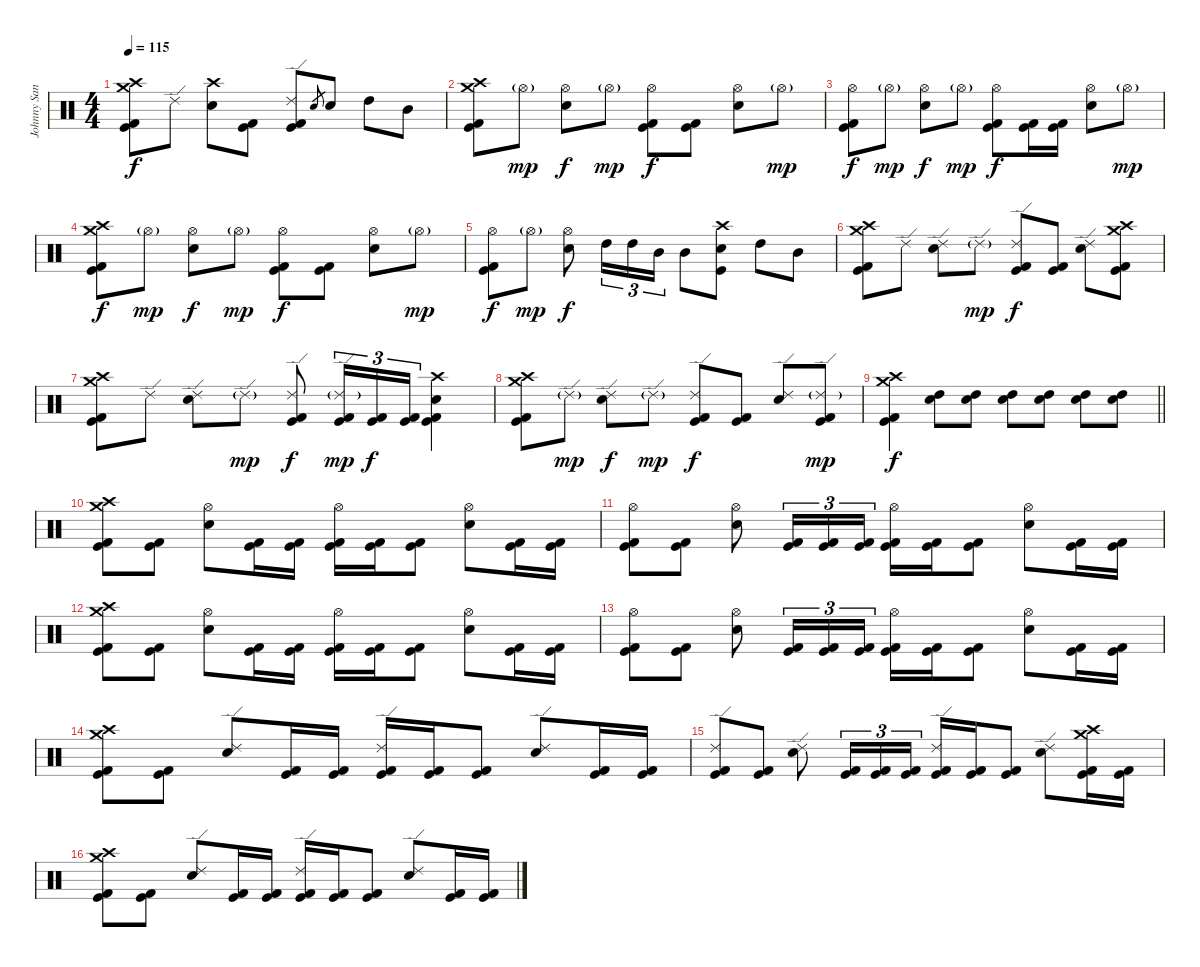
\track ("Johnny Sandin" "Johnny San") {instrument percussion}
\staff {score}
\articulation defaults
\ts (4 4)
\tempo 115
\clef neutral
\ks c
("Crash medium (hit)" "Crash high (hit)" "Kick (hit) 2" "Kick (hit)").8{dy f} "Ride (edge) 2".8 ("Crash high (hit)" "Snare (hit) 2").8 ("Kick (hit) 2" "Kick (hit)").8 ("Ride (edge) 2" "Kick (hit) 2" "Kick (hit)").8 "Snare (hit) 2".8{gr} "Snare (hit) 2".8 "High Tom (hit)".8 "Mid Tom (hit)".8 |
("Crash medium (hit)" "Crash high (hit)" "Kick (hit) 2" "Kick (hit)").8 "Hi-Hat (open)"{g}.8{dy mp} ("Hi-Hat (open)" "Snare (hit) 2").8{dy f} "Hi-Hat (open)"{g}.8{dy mp} ("Hi-Hat (open)" "Kick (hit) 2" "Kick (hit)").8{dy f} ("Kick (hit) 2" "Kick (hit)").8 ("Hi-Hat (open)" "Snare (hit) 2").8 "Hi-Hat (open)"{g}.8{dy mp} |
("Hi-Hat (open)" "Kick (hit) 2" "Kick (hit)").8{dy f} "Hi-Hat (open)"{g}.8{dy mp} ("Hi-Hat (open)" "Snare (hit) 2").8{dy f} "Hi-Hat (open)"{g}.8{dy mp} ("Hi-Hat (open)" "Kick (hit) 2" "Kick (hit)").8{dy f} ("Kick (hit) 2" "Kick (hit)").16 ("Kick (hit) 2" "Kick (hit)").16 ("Hi-Hat (open)" "Snare (hit) 2").8 "Hi-Hat (open)"{g}.8{dy mp} |
("Crash medium (hit)" "Crash high (hit)" "Kick (hit) 2" "Kick (hit)").8{dy f} "Hi-Hat (open)"{g}.8{dy mp} ("Hi-Hat (open)" "Snare (hit) 2").8{dy f} "Hi-Hat (open)"{g}.8{dy mp} ("Hi-Hat (open)" "Kick (hit) 2" "Kick (hit)").8{dy f} ("Kick (hit) 2" "Kick (hit)").8 ("Hi-Hat (open)" "Snare (hit) 2").8 "Hi-Hat (open)"{g}.8{dy mp} |
("Hi-Hat (open)" "Kick (hit) 2" "Kick (hit)").8{dy f} "Hi-Hat (open)"{g}.8{dy mp} ("Hi-Hat (open)" "Snare (hit) 2").8{dy f} "High Tom (hit)".16{tu (3 2)} "High Tom (hit)".16{tu (3 2)} "Mid Tom (hit)".16{tu (3 2)} "Mid Tom (hit)".8 ("Crash high (hit)" "Snare (hit) 2" "Kick (hit)").8 "High Tom (hit)".8 "Mid Tom (hit)".8 |
("Crash medium (hit)" "Crash high (hit)" "Kick (hit) 2" "Kick (hit)").8 "Ride (edge) 2".8 ("Ride (edge) 2" "Snare (hit) 2").8 "Ride (edge) 2"{g}.8{dy mp} ("Ride (edge) 2" "Kick (hit) 2" "Kick (hit)").8{dy f} ("Kick (hit) 2" "Kick (hit)").8 ("Ride (edge) 2" "Snare (hit) 2").8 ("Crash medium (hit)" "Crash high (hit)" "Kick (hit) 2" "Kick (hit)").8 |
("Crash medium (hit)" "Crash high (hit)" "Kick (hit) 2" "Kick (hit)").8 "Ride (edge) 2".8 ("Ride (edge) 2" "Snare (hit) 2").8 "Ride (edge) 2"{g}.8{dy mp} ("Ride (edge) 2" "Kick (hit) 2" "Kick (hit)").8{dy f} ("Ride (edge) 2"{g} "Kick (hit)" "Kick (hit) 2").16{tu (3 2) dy mp} ("Kick (hit)" "Kick (hit) 2").16{tu (3 2) dy f} ("Kick (hit)" "Kick (hit) 2").16{tu (3 2)} ("Crash high (hit)" "Snare (hit) 2" "Kick (hit) 2" "Kick (hit)").4 |
("Crash medium (hit)" "Crash high (hit)" "Kick (hit) 2" "Kick (hit)").8 "Ride (edge) 2"{g}.8{dy mp} ("Ride (edge) 2" "Snare (hit) 2").8{dy f} "Ride (edge) 2"{g}.8{dy mp} ("Ride (edge) 2" "Kick (hit) 2" "Kick (hit)").8{dy f} ("Kick (hit) 2" "Kick (hit)").8 ("Ride (edge) 2" "Snare (hit) 2").8 ("Ride (edge) 2"{g} "Kick (hit) 2" "Kick (hit)").8{dy mp} |
\barLineRight lightlight
("Crash medium (hit)" "Crash high (hit)" "Kick (hit) 2" "Kick (hit)").4{dy f} ("High Tom (hit)" "Snare (hit) 2").8 ("High Tom (hit)" "Snare (hit) 2").8 ("High Tom (hit)" "Snare (hit) 2").8 ("High Tom (hit)" "Snare (hit) 2").8 ("High Tom (hit)" "Snare (hit) 2").8 ("High Tom (hit)" "Snare (hit) 2").8 |
("Crash medium (hit)" "Crash high (hit)" "Kick (hit) 2" "Kick (hit)").8 ("Kick (hit) 2" "Kick (hit)").8 ("Hi-Hat (open)" "Snare (hit) 2").8 ("Kick (hit) 2" "Kick (hit)").16 ("Kick (hit) 2" "Kick (hit)").16 ("Hi-Hat (open)" "Kick (hit) 2" "Kick (hit)").16 ("Kick (hit) 2" "Kick (hit)").16 ("Kick (hit) 2" "Kick (hit)").8 ("Hi-Hat (open)" "Snare (hit) 2").8 ("Kick (hit) 2" "Kick (hit)").16 ("Kick (hit) 2" "Kick (hit)").16 |
("Hi-Hat (open)" "Kick (hit) 2" "Kick (hit)").8 ("Kick (hit) 2" "Kick (hit)").8 ("Hi-Hat (open)" "Snare (hit) 2").8 ("Kick (hit) 2" "Kick (hit)").16{tu (3 2)} ("Kick (hit) 2" "Kick (hit)").16{tu (3 2)} ("Kick (hit) 2" "Kick (hit)").16{tu (3 2)} ("Hi-Hat (open)" "Kick (hit) 2" "Kick (hit)").16 ("Kick (hit) 2" "Kick (hit)").16 ("Kick (hit) 2" "Kick (hit)").8 ("Hi-Hat (open)" "Snare (hit) 2").8 ("Kick (hit) 2" "Kick (hit)").16 ("Kick (hit) 2" "Kick (hit)").16 |
("Crash medium (hit)" "Crash high (hit)" "Kick (hit) 2" "Kick (hit)").8 ("Kick (hit) 2" "Kick (hit)").8 ("Hi-Hat (open)" "Snare (hit) 2").8 ("Kick (hit) 2" "Kick (hit)").16 ("Kick (hit) 2" "Kick (hit)").16 ("Hi-Hat (open)" "Kick (hit) 2" "Kick (hit)").16 ("Kick (hit) 2" "Kick (hit)").16 ("Kick (hit) 2" "Kick (hit)").8 ("Hi-Hat (open)" "Snare (hit) 2").8 ("Kick (hit) 2" "Kick (hit)").16 ("Kick (hit) 2" "Kick (hit)").16 |
("Hi-Hat (open)" "Kick (hit) 2" "Kick (hit)").8 ("Kick (hit) 2" "Kick (hit)").8 ("Hi-Hat (open)" "Snare (hit) 2").8 ("Kick (hit) 2" "Kick (hit)").16{tu (3 2)} ("Kick (hit) 2" "Kick (hit)").16{tu (3 2)} ("Kick (hit) 2" "Kick (hit)").16{tu (3 2)} ("Hi-Hat (open)" "Kick (hit) 2" "Kick (hit)").16 ("Kick (hit) 2" "Kick (hit)").16 ("Kick (hit) 2" "Kick (hit)").8 ("Hi-Hat (open)" "Snare (hit) 2").8 ("Kick (hit) 2" "Kick (hit)").16 ("Kick (hit) 2" "Kick (hit)").16 |
("Crash medium (hit)" "Crash high (hit)" "Kick (hit) 2" "Kick (hit)").8 ("Kick (hit) 2" "Kick (hit)").8 ("Ride (edge) 2" "Snare (hit) 2").8 ("Kick (hit) 2" "Kick (hit)").16 ("Kick (hit) 2" "Kick (hit)").16 ("Ride (edge) 2" "Kick (hit) 2" "Kick (hit)").16 ("Kick (hit) 2" "Kick (hit)").16 ("Kick (hit) 2" "Kick (hit)").8 ("Ride (edge) 2" "Snare (hit) 2").8 ("Kick (hit) 2" "Kick (hit)").16 ("Kick (hit) 2" "Kick (hit)").16 |
("Ride (edge) 2" "Kick (hit) 2" "Kick (hit)").8 ("Kick (hit) 2" "Kick (hit)").8 ("Ride (edge) 2" "Snare (hit) 2").8 ("Kick (hit) 2" "Kick (hit)").16{tu (3 2)} ("Kick (hit) 2" "Kick (hit)").16{tu (3 2)} ("Kick (hit) 2" "Kick (hit)").16{tu (3 2)} ("Ride (edge) 2" "Kick (hit) 2" "Kick (hit)").16 ("Kick (hit) 2" "Kick (hit)").16 ("Kick (hit) 2" "Kick (hit)").8 ("Ride (edge) 2" "Snare (hit) 2").8 ("Crash medium (hit)" "Crash high (hit)" "Kick (hit) 2" "Kick (hit)").16 ("Kick (hit) 2" "Kick (hit)").16 |
("Crash medium (hit)" "Crash high (hit)" "Kick (hit) 2" "Kick (hit)").8 ("Kick (hit) 2" "Kick (hit)").8 ("Ride (edge) 2" "Snare (hit) 2").8 ("Kick (hit) 2" "Kick (hit)").16 ("Kick (hit) 2" "Kick (hit)").16 ("Ride (edge) 2" "Kick (hit) 2" "Kick (hit)").16 ("Kick (hit) 2" "Kick (hit)").16 ("Kick (hit) 2" "Kick (hit)").8 ("Ride (edge) 2" "Snare (hit) 2").8 ("Kick (hit) 2" "Kick (hit)").16 ("Kick (hit) 2" "Kick (hit)").16
